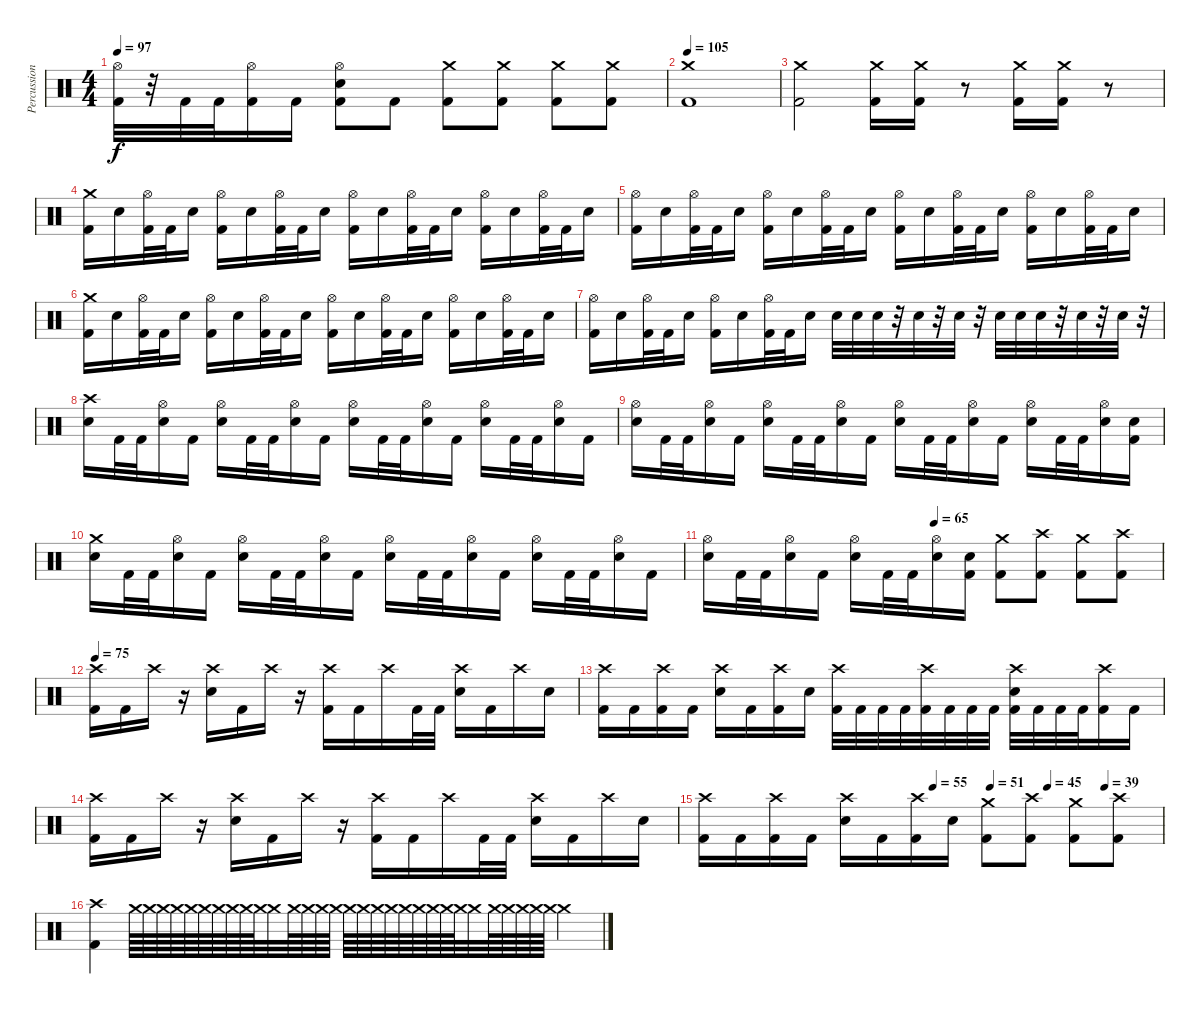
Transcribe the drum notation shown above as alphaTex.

\track ("Percussion" "Percussion") {instrument percussion}
\staff {score}
\articulation defaults
\ts (4 4)
\tempo 97
\clef neutral
\ks c
("Hi-Hat (open)" "Kick (hit) 2").32{dy f} r.32 "Kick (hit) 2".32 "Kick (hit) 2".32 ("Hi-Hat (open)" "Kick (hit) 2").16 "Kick (hit) 2".16 ("Hi-Hat (open)" "Electric Snare (hit)" "Kick (hit) 2").8 "Kick (hit) 2".8 ("Crash medium (hit)" "Kick (hit) 2").8 ("Crash medium (hit)" "Kick (hit) 2").8 ("Crash medium (hit)" "Kick (hit) 2").8 ("Crash medium (hit)" "Kick (hit) 2").8 |
\tempo 105
("Crash medium (hit)" "Kick (hit) 2").1 |
("Crash medium (hit)" "Kick (hit) 2").2 ("Crash medium (hit)" "Kick (hit) 2").16 ("Crash medium (hit)" "Kick (hit) 2").16 r.8 ("Crash medium (hit)" "Kick (hit) 2").16 ("Crash medium (hit)" "Kick (hit) 2").16 r.8 |
("Crash medium (hit)" "Kick (hit) 2").16 "Electric Snare (hit)".16 ("Hi-Hat (open)" "Kick (hit) 2").32 "Kick (hit) 2".32 "Electric Snare (hit)".16 ("Hi-Hat (open)" "Kick (hit) 2").16 "Electric Snare (hit)".16 ("Hi-Hat (open)" "Kick (hit) 2").32 "Kick (hit) 2".32 "Electric Snare (hit)".16 ("Hi-Hat (open)" "Kick (hit) 2").16 "Electric Snare (hit)".16 ("Hi-Hat (open)" "Kick (hit) 2").32 "Kick (hit) 2".32 "Electric Snare (hit)".16 ("Hi-Hat (open)" "Kick (hit) 2").16 "Electric Snare (hit)".16 ("Hi-Hat (open)" "Kick (hit) 2").32 "Kick (hit) 2".32 "Electric Snare (hit)".16 |
("Hi-Hat (open)" "Kick (hit) 2").16 "Electric Snare (hit)".16 ("Hi-Hat (open)" "Kick (hit) 2").32 "Kick (hit) 2".32 "Electric Snare (hit)".16 ("Hi-Hat (open)" "Kick (hit) 2").16 "Electric Snare (hit)".16 ("Hi-Hat (open)" "Kick (hit) 2").32 "Kick (hit) 2".32 "Electric Snare (hit)".16 ("Hi-Hat (open)" "Kick (hit) 2").16 "Electric Snare (hit)".16 ("Hi-Hat (open)" "Kick (hit) 2").32 "Kick (hit) 2".32 "Electric Snare (hit)".16 ("Hi-Hat (open)" "Kick (hit) 2").16 "Electric Snare (hit)".16 ("Hi-Hat (open)" "Kick (hit) 2").32 "Kick (hit) 2".32 "Electric Snare (hit)".16 |
("Crash medium (hit)" "Kick (hit) 2").16 "Electric Snare (hit)".16 ("Hi-Hat (open)" "Kick (hit) 2").32 "Kick (hit) 2".32 "Electric Snare (hit)".16 ("Hi-Hat (open)" "Kick (hit) 2").16 "Electric Snare (hit)".16 ("Hi-Hat (open)" "Kick (hit) 2").32 "Kick (hit) 2".32 "Electric Snare (hit)".16 ("Hi-Hat (open)" "Kick (hit) 2").16 "Electric Snare (hit)".16 ("Hi-Hat (open)" "Kick (hit) 2").32 "Kick (hit) 2".32 "Electric Snare (hit)".16 ("Hi-Hat (open)" "Kick (hit) 2").16 "Electric Snare (hit)".16 ("Hi-Hat (open)" "Kick (hit) 2").32 "Kick (hit) 2".32 "Electric Snare (hit)".16 |
("Hi-Hat (open)" "Kick (hit) 2").16 "Electric Snare (hit)".16 ("Hi-Hat (open)" "Kick (hit) 2").32 "Kick (hit) 2".32 "Electric Snare (hit)".16 ("Hi-Hat (open)" "Kick (hit) 2").16 "Electric Snare (hit)".16 ("Hi-Hat (open)" "Kick (hit) 2").32 "Kick (hit) 2".32 "Electric Snare (hit)".16 "Electric Snare (hit)".32 "Electric Snare (hit)".32 "Electric Snare (hit)".32 r.32 "Electric Snare (hit)".32 r.32 "Electric Snare (hit)".32 r.32 "Electric Snare (hit)".32 "Electric Snare (hit)".32 "Electric Snare (hit)".32 r.32 "Electric Snare (hit)".32 r.32 "Electric Snare (hit)".32 r.32 |
("Crash high (hit)" "Electric Snare (hit)").16 "Kick (hit) 2".32 "Kick (hit) 2".32 ("Hi-Hat (open)" "Electric Snare (hit)").16 "Kick (hit) 2".16 ("Hi-Hat (open)" "Electric Snare (hit)").16 "Kick (hit) 2".32 "Kick (hit) 2".32 ("Hi-Hat (open)" "Electric Snare (hit)").16 "Kick (hit) 2".16 ("Hi-Hat (open)" "Electric Snare (hit)").16 "Kick (hit) 2".32 "Kick (hit) 2".32 ("Hi-Hat (open)" "Electric Snare (hit)").16 "Kick (hit) 2".16 ("Hi-Hat (open)" "Electric Snare (hit)").16 "Kick (hit) 2".32 "Kick (hit) 2".32 ("Hi-Hat (open)" "Electric Snare (hit)").16 "Kick (hit) 2".16 |
("Hi-Hat (open)" "Electric Snare (hit)").16 "Kick (hit) 2".32 "Kick (hit) 2".32 ("Hi-Hat (open)" "Electric Snare (hit)").16 "Kick (hit) 2".16 ("Hi-Hat (open)" "Electric Snare (hit)").16 "Kick (hit) 2".32 "Kick (hit) 2".32 ("Hi-Hat (open)" "Electric Snare (hit)").16 "Kick (hit) 2".16 ("Hi-Hat (open)" "Electric Snare (hit)").16 "Kick (hit) 2".32 "Kick (hit) 2".32 ("Hi-Hat (open)" "Electric Snare (hit)").16 "Kick (hit) 2".16 ("Hi-Hat (open)" "Electric Snare (hit)").16 "Kick (hit) 2".32 "Kick (hit) 2".32 ("Hi-Hat (open)" "Electric Snare (hit)").16 ("Electric Snare (hit)" "Kick (hit) 2").16 |
("Crash medium (hit)" "Electric Snare (hit)").16 "Kick (hit) 2".32 "Kick (hit) 2".32 ("Hi-Hat (open)" "Electric Snare (hit)").16 "Kick (hit) 2".16 ("Hi-Hat (open)" "Electric Snare (hit)").16 "Kick (hit) 2".32 "Kick (hit) 2".32 ("Hi-Hat (open)" "Electric Snare (hit)").16 "Kick (hit) 2".16 ("Hi-Hat (open)" "Electric Snare (hit)").16 "Kick (hit) 2".32 "Kick (hit) 2".32 ("Hi-Hat (open)" "Electric Snare (hit)").16 "Kick (hit) 2".16 ("Hi-Hat (open)" "Electric Snare (hit)").16 "Kick (hit) 2".32 "Kick (hit) 2".32 ("Hi-Hat (open)" "Electric Snare (hit)").16 "Kick (hit) 2".16 |
\tempo (65 0.5)
("Hi-Hat (open)" "Electric Snare (hit)").16 "Kick (hit) 2".32 "Kick (hit) 2".32 ("Hi-Hat (open)" "Electric Snare (hit)").16 "Kick (hit) 2".16 ("Hi-Hat (open)" "Electric Snare (hit)").16 "Kick (hit) 2".32 "Kick (hit) 2".32 ("Hi-Hat (open)" "Electric Snare (hit)").16 ("Electric Snare (hit)" "Kick (hit) 2").16 ("Crash medium (hit)" "Kick (hit) 2").8 ("Crash high (hit)" "Kick (hit) 2").8 ("Crash medium (hit)" "Kick (hit) 2").8 ("Crash high (hit)" "Kick (hit) 2").8 |
\tempo 75
("Crash high (hit)" "Kick (hit) 2").16 "Kick (hit) 2".16 "Crash high (hit)".16 r.16 ("Crash high (hit)" "Electric Snare (hit)").16 "Kick (hit) 2".16 "Crash high (hit)".16 r.16 ("Crash high (hit)" "Kick (hit) 2").16 "Kick (hit) 2".16 "Crash high (hit)".16 "Kick (hit) 2".32 "Kick (hit) 2".32 ("Crash high (hit)" "Electric Snare (hit)").16 "Kick (hit) 2".16 "Crash high (hit)".16 "Electric Snare (hit)".16 |
("Crash high (hit)" "Kick (hit) 2").16 "Kick (hit) 2".16 ("Crash high (hit)" "Kick (hit) 2").16 "Kick (hit) 2".16 ("Crash high (hit)" "Electric Snare (hit)").16 "Kick (hit) 2".16 ("Crash high (hit)" "Kick (hit) 2").16 "Electric Snare (hit)".16 ("Crash high (hit)" "Kick (hit) 2").32 "Kick (hit) 2".32 "Kick (hit) 2".32 "Kick (hit) 2".32 ("Crash high (hit)" "Kick (hit) 2").32 "Kick (hit) 2".32 "Kick (hit) 2".32 "Kick (hit) 2".32 ("Crash high (hit)" "Electric Snare (hit)" "Kick (hit) 2").32 "Kick (hit) 2".32 "Kick (hit) 2".32 "Kick (hit) 2".32 ("Crash high (hit)" "Kick (hit) 2").16 "Kick (hit) 2".16 |
("Crash high (hit)" "Kick (hit) 2").16 "Kick (hit) 2".16 "Crash high (hit)".16 r.16 ("Crash high (hit)" "Electric Snare (hit)").16 "Kick (hit) 2".16 "Crash high (hit)".16 r.16 ("Crash high (hit)" "Kick (hit) 2").16 "Kick (hit) 2".16 "Crash high (hit)".16 "Kick (hit) 2".32 "Kick (hit) 2".32 ("Crash high (hit)" "Electric Snare (hit)").16 "Kick (hit) 2".16 "Crash high (hit)".16 "Electric Snare (hit)".16 |
\tempo (55 0.5)
\tempo (51 0.625)
\tempo (45 0.75)
\tempo (39 0.875)
("Crash high (hit)" "Kick (hit) 2").16 "Kick (hit) 2".16 ("Crash high (hit)" "Kick (hit) 2").16 "Kick (hit) 2".16 ("Crash high (hit)" "Electric Snare (hit)").16 "Kick (hit) 2".16 ("Crash high (hit)" "Kick (hit) 2").16 "Electric Snare (hit)".16 ("Crash medium (hit)" "Kick (hit) 2").8 ("Crash high (hit)" "Kick (hit) 2").8 ("Crash medium (hit)" "Kick (hit) 2").8 ("Crash high (hit)" "Kick (hit) 2").8 |
("Crash high (hit)" "Kick (hit) 2").4 "Crash medium (hit)".64{volume 6} "Crash medium (hit)".64 "Crash medium (hit)".64 "Crash medium (hit)".64{volume 12} "Crash medium (hit)".64 "Crash medium (hit)".64 "Crash medium (hit)".64 "Crash medium (hit)".64{volume 10} "Crash medium (hit)".64 "Crash medium (hit)".64 "Crash medium (hit)".32 "Crash medium (hit)".64 "Crash medium (hit)".64 "Crash medium (hit)".64 "Crash medium (hit)".64{volume 13} "Crash medium (hit)".64 "Crash medium (hit)".64 "Crash medium (hit)".64 "Crash medium (hit)".64 "Crash medium (hit)".64{volume 7} "Crash medium (hit)".64 "Crash medium (hit)".64 "Crash medium (hit)".64 "Crash medium (hit)".64{volume 10} "Crash medium (hit)".32 "Crash medium (hit)".64 "Crash medium (hit)".64{volume 8} "Crash medium (hit)".64 "Crash medium (hit)".64 "Crash medium (hit)".64 "Crash medium (hit)".4{volume 16}
